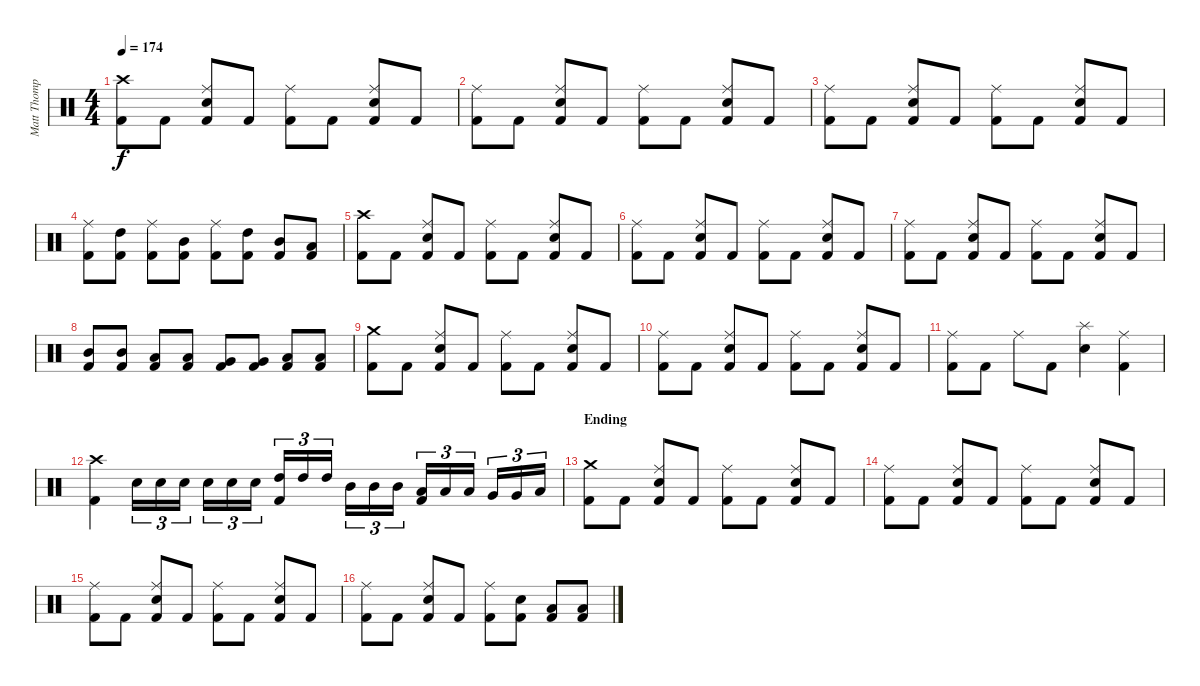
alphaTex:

\track ("Matt Thompson" "Matt Thomp") {instrument percussion}
\staff {score}
\articulation defaults
\ts (4 4)
\tempo 174
\clef neutral
\ks c
("Crash high (hit)" "Kick (hit) 2").8{dy f} "Kick (hit) 2".8 ("Ride (middle)" "Snare (hit) 2" "Kick (hit) 2").8 "Kick (hit) 2".8 ("Ride (middle)" "Kick (hit) 2").8 "Kick (hit) 2".8 ("Ride (middle)" "Snare (hit) 2" "Kick (hit) 2").8 "Kick (hit) 2".8 |
("Ride (middle)" "Kick (hit) 2").8 "Kick (hit) 2".8 ("Ride (middle)" "Snare (hit) 2" "Kick (hit) 2").8 "Kick (hit) 2".8 ("Ride (middle)" "Kick (hit) 2").8 "Kick (hit) 2".8 ("Ride (middle)" "Snare (hit) 2" "Kick (hit) 2").8 "Kick (hit) 2".8 |
("Ride (middle)" "Kick (hit) 2").8 "Kick (hit) 2".8 ("Ride (middle)" "Snare (hit) 2" "Kick (hit) 2").8 "Kick (hit) 2".8 ("Ride (middle)" "Kick (hit) 2").8 "Kick (hit) 2".8 ("Ride (middle)" "Snare (hit) 2" "Kick (hit) 2").8 "Kick (hit) 2".8 |
("Ride (middle)" "Kick (hit) 2").8 ("High Tom (hit)" "Kick (hit) 2").8 ("Ride (middle)" "Kick (hit) 2").8 ("Mid Tom (hit)" "Kick (hit) 2").8 ("Ride (middle)" "Kick (hit) 2").8 ("High Tom (hit)" "Kick (hit) 2").8 ("Mid Tom (hit)" "Kick (hit) 2").8 ("Low Tom (hit)" "Kick (hit) 2").8 |
("Crash high (hit)" "Kick (hit) 2").8 "Kick (hit) 2".8 ("Ride (middle)" "Snare (hit) 2" "Kick (hit) 2").8 "Kick (hit) 2".8 ("Ride (middle)" "Kick (hit) 2").8 "Kick (hit) 2".8 ("Ride (middle)" "Snare (hit) 2" "Kick (hit) 2").8 "Kick (hit) 2".8 |
("Ride (middle)" "Kick (hit) 2").8 "Kick (hit) 2".8 ("Ride (middle)" "Snare (hit) 2" "Kick (hit) 2").8 "Kick (hit) 2".8 ("Ride (middle)" "Kick (hit) 2").8 "Kick (hit) 2".8 ("Ride (middle)" "Snare (hit) 2" "Kick (hit) 2").8 "Kick (hit) 2".8 |
("Ride (middle)" "Kick (hit) 2").8 "Kick (hit) 2".8 ("Ride (middle)" "Snare (hit) 2" "Kick (hit) 2").8 "Kick (hit) 2".8 ("Ride (middle)" "Kick (hit) 2").8 "Kick (hit) 2".8 ("Ride (middle)" "Snare (hit) 2" "Kick (hit) 2").8 "Kick (hit) 2".8 |
("Mid Tom (hit)" "Kick (hit) 2").8 ("Mid Tom (hit)" "Kick (hit) 2").8 ("Low Tom (hit)" "Kick (hit) 2").8 ("Low Tom (hit)" "Kick (hit) 2").8 ("Very Low Tom (hit)" "Kick (hit) 2").8 ("Very Low Tom (hit)" "Kick (hit) 2").8 ("Low Floor Tom (hit)" "Kick (hit) 2").8 ("Low Floor Tom (hit)" "Kick (hit) 2").8 |
("Crash medium (hit)" "Kick (hit) 2").8 "Kick (hit) 2".8 ("Ride (middle)" "Snare (hit) 2" "Kick (hit) 2").8 "Kick (hit) 2".8 ("Ride (middle)" "Kick (hit) 2").8 "Kick (hit) 2".8 ("Ride (middle)" "Snare (hit) 2" "Kick (hit) 2").8 "Kick (hit) 2".8 |
("Ride (middle)" "Kick (hit) 2").8 "Kick (hit) 2".8 ("Ride (middle)" "Snare (hit) 2" "Kick (hit) 2").8 "Kick (hit) 2".8 ("Ride (middle)" "Kick (hit) 2").8 "Kick (hit) 2".8 ("Ride (middle)" "Snare (hit) 2" "Kick (hit) 2").8 "Kick (hit) 2".8 |
("Ride (middle)" "Kick (hit) 2").8 "Kick (hit) 2".8 "Ride (middle)".8 "Kick (hit) 2".8 ("Splash (hit)" "Snare (hit) 2").4 ("Ride (middle)" "Kick (hit) 2").4 |
("Crash high (hit)" "Kick (hit) 2").4 "Snare (hit) 2".16{tu (3 2)} "Snare (hit) 2".16{tu (3 2)} "Snare (hit) 2".16{tu (3 2)} "Snare (hit) 2".16{tu (3 2)} "Snare (hit) 2".16{tu (3 2)} "Snare (hit) 2".16{tu (3 2)} ("High Tom (hit)" "Kick (hit) 2").16{tu (3 2)} "High Tom (hit)".16{tu (3 2)} "High Tom (hit)".16{tu (3 2)} "Mid Tom (hit)".16{tu (3 2)} "Mid Tom (hit)".16{tu (3 2)} "Mid Tom (hit)".16{tu (3 2)} ("Low Tom (hit)" "Kick (hit) 2").16{tu (3 2)} "Low Tom (hit)".16{tu (3 2)} "Low Tom (hit)".16{tu (3 2)} "Very Low Tom (hit)".16{tu (3 2)} "Very Low Tom (hit)".16{tu (3 2)} "Low Floor Tom (hit)".16{tu (3 2)} |
\section ("" "Ending")
("Crash medium (hit)" "Kick (hit) 2").8 "Kick (hit) 2".8 ("Ride (middle)" "Snare (hit) 2" "Kick (hit) 2").8 "Kick (hit) 2".8 ("Ride (middle)" "Kick (hit) 2").8 "Kick (hit) 2".8 ("Ride (middle)" "Snare (hit) 2" "Kick (hit) 2").8 "Kick (hit) 2".8 |
("Ride (middle)" "Kick (hit) 2").8 "Kick (hit) 2".8 ("Ride (middle)" "Snare (hit) 2" "Kick (hit) 2").8 "Kick (hit) 2".8 ("Ride (middle)" "Kick (hit) 2").8 "Kick (hit) 2".8 ("Ride (middle)" "Snare (hit) 2" "Kick (hit) 2").8 "Kick (hit) 2".8 |
("Ride (middle)" "Kick (hit) 2").8 "Kick (hit) 2".8 ("Ride (middle)" "Snare (hit) 2" "Kick (hit) 2").8 "Kick (hit) 2".8 ("Ride (middle)" "Kick (hit) 2").8 "Kick (hit) 2".8 ("Ride (middle)" "Snare (hit) 2" "Kick (hit) 2").8 "Kick (hit) 2".8 |
("Ride (middle)" "Kick (hit) 2").8 "Kick (hit) 2".8 ("Ride (middle)" "Snare (hit) 2" "Kick (hit) 2").8 "Kick (hit) 2".8 ("Ride (middle)" "Kick (hit) 2").8 ("Snare (hit) 2" "Kick (hit) 2").8 ("Low Tom (hit)" "Kick (hit) 2").8 ("Low Tom (hit)" "Kick (hit) 2").8
